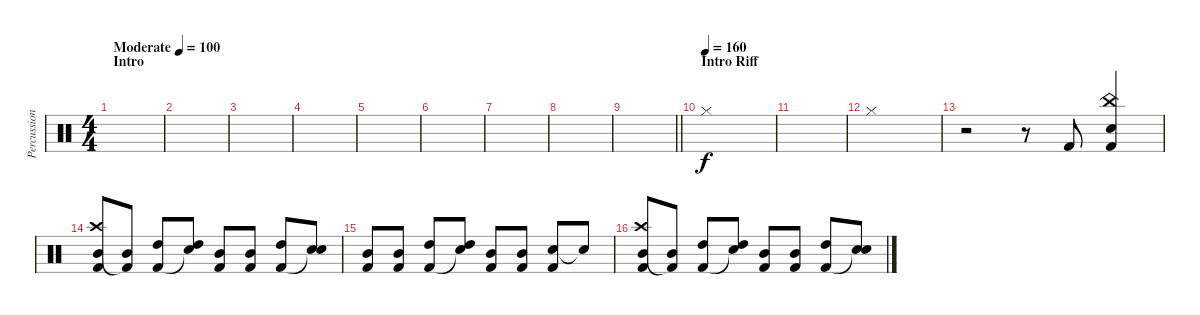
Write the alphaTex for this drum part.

\track ("Percussion" "Percussion") {instrument percussion}
\staff {score}
\articulation defaults
\ts (4 4)
\section ("" "Intro")
\tempo (100 "Moderate")
\clef neutral
\ks c
|
|
|
|
|
|
|
|
\barLineRight lightlight
|
\section ("" "Intro Riff")
\tempo (160)
"Hi-Hat (closed)".1 |
|
"Hi-Hat (closed)".1 |
r.2 r.8 "Kick (hit) 2".8 ("China (hit)" "Snare (hit) 2" "Kick (hit) 2").4 |
("Crash high (hit)" "Mid Tom (hit)" "Kick (hit) 2").8 ("Mid Tom (hit)" "Kick (hit) 2"{t}).8 ("High Tom (hit)" "Kick (hit) 2").8 ("High Tom (hit)" "Snare (hit)"{t}).8 ("Mid Tom (hit)" "Kick (hit) 2").8 ("Mid Tom (hit)" "Kick (hit) 2").8 ("High Tom (hit)" "Kick (hit) 2").8 ("Snare (hit) 2" "Snare (hit)"{t}).8 |
("Mid Tom (hit)" "Kick (hit) 2").8 ("Mid Tom (hit)" "Kick (hit) 2").8 ("High Tom (hit)" "Kick (hit) 2").8 ("High Tom (hit)" "Snare (hit)"{t}).8 ("Mid Tom (hit)" "Kick (hit) 2").8 ("Mid Tom (hit)" "Kick (hit) 2").8 ("Snare (hit) 2" "Kick (hit) 2").8 "Snare (hit)"{t}.8 |
("Crash high (hit)" "Mid Tom (hit)" "Kick (hit) 2").8 ("Mid Tom (hit)" "Kick (hit) 2"{t}).8 ("High Tom (hit)" "Kick (hit) 2").8 ("High Tom (hit)" "Snare (hit)"{t}).8 ("Mid Tom (hit)" "Kick (hit) 2").8 ("Mid Tom (hit)" "Kick (hit) 2").8 ("High Tom (hit)" "Kick (hit) 2").8 ("Snare (hit) 2" "Snare (hit)"{t}).8
